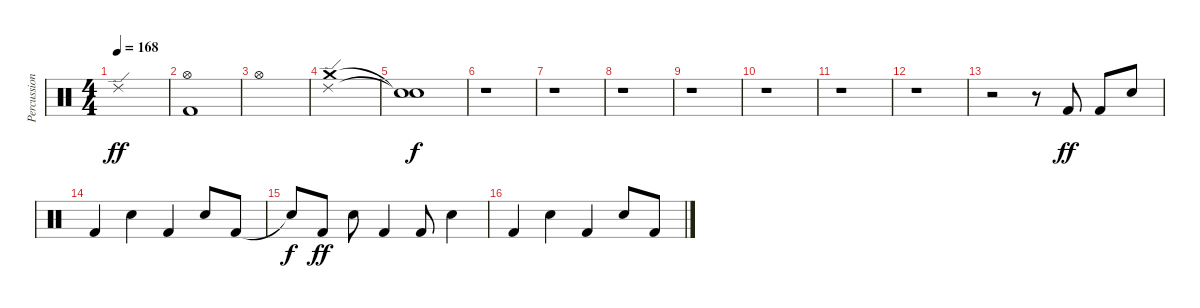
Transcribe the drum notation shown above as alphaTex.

\track ("Percussions" "Percussion") {instrument percussion}
\staff {score}
\articulation defaults
\ts (4 4)
\tempo 168
\clef neutral
\ks c "Ride (edge) 2".1{dy ff}
|
("Kick (hit) 2" "Hi-Hat (open)").1 |
"Hi-Hat (open)".1 |
("Crash medium (hit)" "Ride (edge) 2").1 |
("Snare (hit)"{t} "Snare (hit)"{t}).1{dy f} |
r.1 |
r.1 |
r.1 |
r.1 |
r.1 |
r.1 |
r.1 |
r.2 r.8 "Kick (hit) 2".8{dy ff} "Kick (hit) 2".8 "Snare (hit) 2".8 |
"Kick (hit) 2".4 "Snare (hit) 2".4 "Kick (hit) 2".4 "Snare (hit) 2".8 "Kick (hit) 2".8 |
"Snare (hit)"{t}.8{dy f} "Kick (hit) 2".8{dy ff} "Snare (hit) 2".8 "Kick (hit) 2".4 "Kick (hit) 2".8 "Snare (hit) 2".4 |
"Kick (hit) 2".4 "Snare (hit) 2".4 "Kick (hit) 2".4 "Snare (hit) 2".8 "Kick (hit) 2".8
